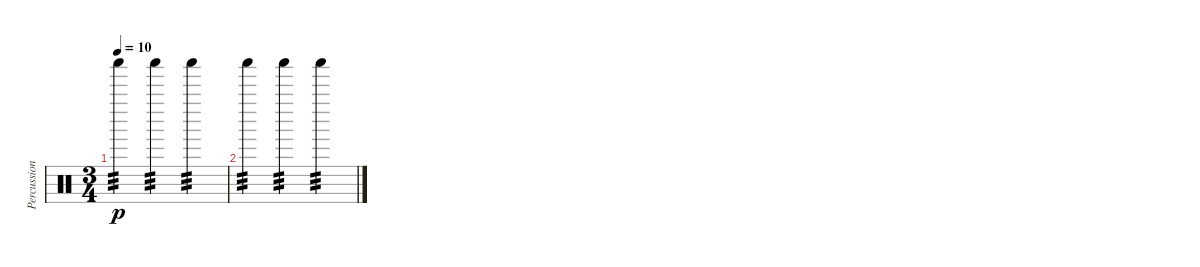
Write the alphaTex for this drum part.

\track ("Percussions" "Percussion") {instrument percussion}
\staff {score}
\articulation defaults
\ts (3 4)
\tempo 10
\clef neutral
\ks c "Shaker (hit)".4{tp 3 dy p} "Shaker (hit)".4{tp 3} "Shaker (hit)".4{tp 3}
|
"Shaker (hit)".4{tp 3} "Shaker (hit)".4{tp 3} "Shaker (hit)".4{tp 3}
